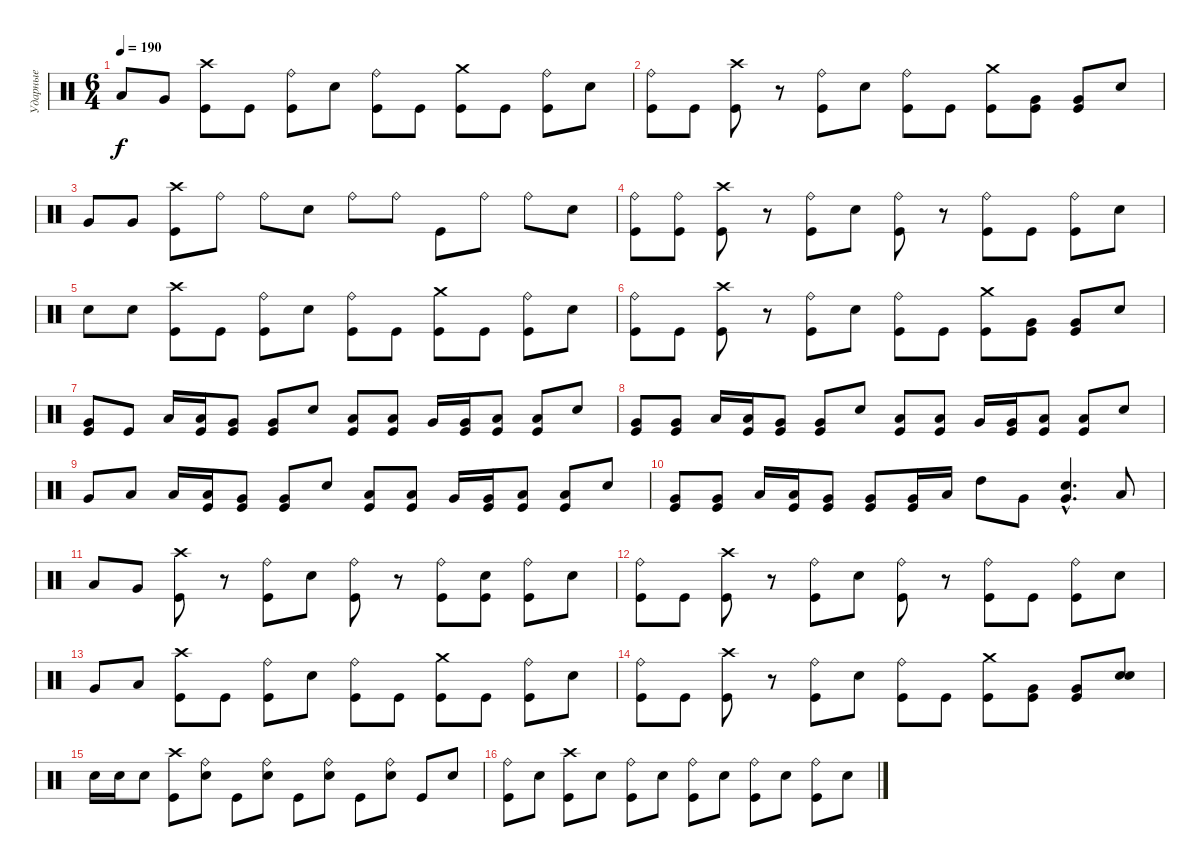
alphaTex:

\track ("Ударные" "Ударные") {instrument percussion}
\staff {score}
\articulation defaults
\ts (6 4)
\tempo 190
\clef neutral
\ks c "Low Tom (hit)".8{dy f} "Very Low Tom (hit)".8
("Crash high (hit)" "Kick (hit)").8 "Kick (hit)".8 ("Ride (bell)" "Kick (hit)").8 "Electric Snare (hit)".8 ("Ride (bell)" "Kick (hit)").8 "Kick (hit)".8 ("Crash medium (hit)" "Kick (hit)").8 "Kick (hit)".8 ("Ride (bell)" "Kick (hit)").8 "Electric Snare (hit)".8 |
("Ride (bell)" "Kick (hit)").8 "Kick (hit)".8 ("Crash high (hit)" "Kick (hit)").8 r.8 ("Ride (bell)" "Kick (hit)").8 "Electric Snare (hit)".8 ("Ride (bell)" "Kick (hit)").8 "Kick (hit)".8 ("Crash medium (hit)" "Kick (hit)").8 ("Very Low Tom (hit)" "Kick (hit)").8 ("Very Low Tom (hit)" "Kick (hit)").8 "Electric Snare (hit)".8 |
"Very Low Tom (hit)".8 "Very Low Tom (hit)".8 ("Crash high (hit)" "Kick (hit)").8 "Ride (bell)".8 "Ride (bell)".8 "Electric Snare (hit)".8 "Ride (bell)".8 "Ride (bell)".8 "Kick (hit)".8 "Ride (bell)".8 "Ride (bell)".8 "Electric Snare (hit)".8 |
("Ride (bell)" "Kick (hit)").8 ("Ride (bell)" "Kick (hit)").8 ("Crash high (hit)" "Kick (hit)").8 r.8 ("Ride (bell)" "Kick (hit)").8 "Electric Snare (hit)".8 ("Ride (bell)" "Kick (hit)").8 r.8 ("Ride (bell)" "Kick (hit)").8 "Kick (hit)".8 ("Ride (bell)" "Kick (hit)").8 "Electric Snare (hit)".8 |
"Electric Snare (hit)".8 "Electric Snare (hit)".8 ("Crash high (hit)" "Kick (hit)").8 "Kick (hit)".8 ("Ride (bell)" "Kick (hit)").8 "Electric Snare (hit)".8 ("Ride (bell)" "Kick (hit)").8 "Kick (hit)".8 ("Crash medium (hit)" "Kick (hit)").8 "Kick (hit)".8 ("Ride (bell)" "Kick (hit)").8 "Electric Snare (hit)".8 |
("Ride (bell)" "Kick (hit)").8 "Kick (hit)".8 ("Crash high (hit)" "Kick (hit)").8 r.8 ("Ride (bell)" "Kick (hit)").8 "Electric Snare (hit)".8 ("Ride (bell)" "Kick (hit)").8 "Kick (hit)".8 ("Crash medium (hit)" "Kick (hit)").8 ("Very Low Tom (hit)" "Kick (hit)").8 ("Very Low Tom (hit)" "Kick (hit)").8 "Electric Snare (hit)".8 |
("Very Low Tom (hit)" "Kick (hit)").8 "Kick (hit)".8 "Low Tom (hit)".16 ("Low Tom (hit)" "Kick (hit)").16 ("Very Low Tom (hit)" "Kick (hit)").8 ("Very Low Tom (hit)" "Kick (hit)").8 "Electric Snare (hit)".8 ("Low Tom (hit)" "Kick (hit)").8 ("Low Tom (hit)" "Kick (hit)").8 "Very Low Tom (hit)".16 ("Very Low Tom (hit)" "Kick (hit)").16 ("Low Tom (hit)" "Kick (hit)").8 ("Low Tom (hit)" "Kick (hit)").8 "Electric Snare (hit)".8 |
("Very Low Tom (hit)" "Kick (hit)").8 ("Very Low Tom (hit)" "Kick (hit)").8 "Low Tom (hit)".16 ("Low Tom (hit)" "Kick (hit)").16 ("Very Low Tom (hit)" "Kick (hit)").8 ("Very Low Tom (hit)" "Kick (hit)").8 "Electric Snare (hit)".8 ("Low Tom (hit)" "Kick (hit)").8 ("Low Tom (hit)" "Kick (hit)").8 "Very Low Tom (hit)".16 ("Very Low Tom (hit)" "Kick (hit)").16 ("Low Tom (hit)" "Kick (hit)").8 ("Low Tom (hit)" "Kick (hit)").8 "Electric Snare (hit)".8 |
"Very Low Tom (hit)".8 "Low Tom (hit)".8 "Low Tom (hit)".16 ("Low Tom (hit)" "Kick (hit)").16 ("Very Low Tom (hit)" "Kick (hit)").8 ("Very Low Tom (hit)" "Kick (hit)").8 "Electric Snare (hit)".8 ("Low Tom (hit)" "Kick (hit)").8 ("Low Tom (hit)" "Kick (hit)").8 "Very Low Tom (hit)".16 ("Very Low Tom (hit)" "Kick (hit)").16 ("Low Tom (hit)" "Kick (hit)").8 ("Low Tom (hit)" "Kick (hit)").8 "Electric Snare (hit)".8 |
("Very Low Tom (hit)" "Kick (hit)").8 ("Very Low Tom (hit)" "Kick (hit)").8 "Low Tom (hit)".16 ("Low Tom (hit)" "Kick (hit)").16 ("Very Low Tom (hit)" "Kick (hit)").8 ("Very Low Tom (hit)" "Kick (hit)").8 ("Very Low Tom (hit)" "Kick (hit)").16 "Low Tom (hit)".16 "High Tom (hit)".8 "Very Low Tom (hit)".8 ("Very Low Tom (hit)"{hac} "Electric Snare (hit)"{hac}).4{d} "Low Tom (hit)".8 |
"Low Tom (hit)".8 "Very Low Tom (hit)".8 ("Crash high (hit)" "Kick (hit)").8 r.8 ("Ride (bell)" "Kick (hit)").8 "Electric Snare (hit)".8 ("Ride (bell)" "Kick (hit)").8 r.8 ("Ride (bell)" "Kick (hit)").8 ("Electric Snare (hit)" "Kick (hit)").8 ("Ride (bell)" "Kick (hit)").8 "Electric Snare (hit)".8 |
("Ride (bell)" "Kick (hit)").8 "Kick (hit)".8 ("Crash high (hit)" "Kick (hit)").8 r.8 ("Ride (bell)" "Kick (hit)").8 "Electric Snare (hit)".8 ("Ride (bell)" "Kick (hit)").8 r.8 ("Ride (bell)" "Kick (hit)").8 "Kick (hit)".8 ("Ride (bell)" "Kick (hit)").8 "Electric Snare (hit)".8 |
"Very Low Tom (hit)".8 "Low Tom (hit)".8 ("Crash high (hit)" "Kick (hit)").8 "Kick (hit)".8 ("Ride (bell)" "Kick (hit)").8 "Electric Snare (hit)".8 ("Ride (bell)" "Kick (hit)").8 "Kick (hit)".8 ("Crash medium (hit)" "Kick (hit)").8 "Kick (hit)".8 ("Ride (bell)" "Kick (hit)").8 "Electric Snare (hit)".8 |
("Ride (bell)" "Kick (hit)").8 "Kick (hit)".8 ("Crash high (hit)" "Kick (hit)").8 r.8 ("Ride (bell)" "Kick (hit)").8 "Electric Snare (hit)".8 ("Ride (bell)" "Kick (hit)").8 "Kick (hit)".8 ("Crash medium (hit)" "Kick (hit)").8 ("Very Low Tom (hit)" "Kick (hit)").8 ("Very Low Tom (hit)" "Kick (hit)").8 ("Electric Snare (hit)" "Electric Snare (hit)").8 |
"Electric Snare (hit)".16 "Electric Snare (hit)".16 "Electric Snare (hit)".8 ("Crash high (hit)" "Kick (hit)").8 ("Ride (bell)" "Electric Snare (hit)").8 "Kick (hit)".8 ("Ride (bell)" "Electric Snare (hit)").8 "Kick (hit)".8 ("Ride (bell)" "Electric Snare (hit)").8 "Kick (hit)".8 ("Ride (bell)" "Electric Snare (hit)").8 "Kick (hit)".8 "Electric Snare (hit)".8 |
("Ride (bell)" "Kick (hit)").8 "Electric Snare (hit)".8 ("Crash high (hit)" "Kick (hit)").8 "Electric Snare (hit)".8 ("Ride (bell)" "Kick (hit)").8 "Electric Snare (hit)".8 ("Ride (bell)" "Kick (hit)").8 "Electric Snare (hit)".8 ("Ride (bell)" "Kick (hit)").8 "Electric Snare (hit)".8 ("Ride (bell)" "Kick (hit)").8 "Electric Snare (hit)".8
